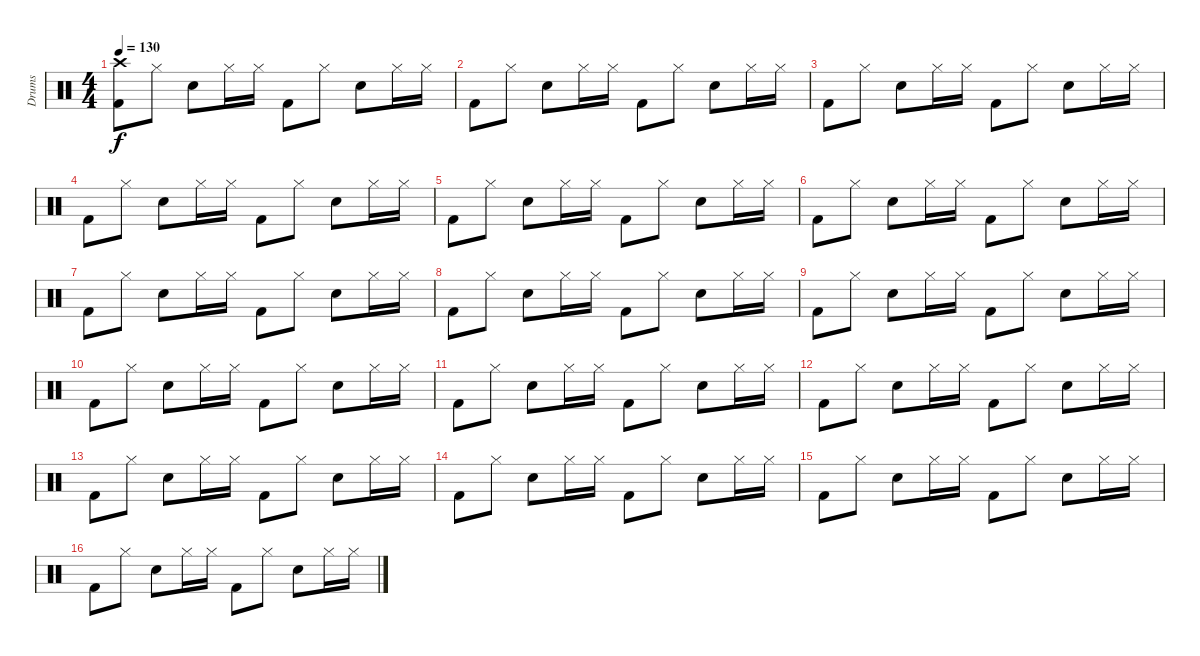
\track ("Drums" "Drums") {instrument percussion}
\staff {score}
\articulation defaults
\ts (4 4)
\tempo 130
\clef neutral
\ks c
("Crash high (hit)" "Kick (hit) 2").8{dy f} "Hi-Hat (closed)".8 "Snare (hit) 2".8 "Hi-Hat (closed)".16 "Hi-Hat (closed)".16 "Kick (hit) 2".8 "Hi-Hat (closed)".8 "Snare (hit) 2".8 "Hi-Hat (closed)".16 "Hi-Hat (closed)".16 |
"Kick (hit) 2".8 "Hi-Hat (closed)".8 "Snare (hit) 2".8 "Hi-Hat (closed)".16 "Hi-Hat (closed)".16 "Kick (hit) 2".8 "Hi-Hat (closed)".8 "Snare (hit) 2".8 "Hi-Hat (closed)".16 "Hi-Hat (closed)".16 |
"Kick (hit) 2".8 "Hi-Hat (closed)".8 "Snare (hit) 2".8 "Hi-Hat (closed)".16 "Hi-Hat (closed)".16 "Kick (hit) 2".8 "Hi-Hat (closed)".8 "Snare (hit) 2".8 "Hi-Hat (closed)".16 "Hi-Hat (closed)".16 |
"Kick (hit) 2".8 "Hi-Hat (closed)".8 "Snare (hit) 2".8 "Hi-Hat (closed)".16 "Hi-Hat (closed)".16 "Kick (hit) 2".8 "Hi-Hat (closed)".8 "Snare (hit) 2".8 "Hi-Hat (closed)".16 "Hi-Hat (closed)".16 |
"Kick (hit) 2".8 "Hi-Hat (closed)".8 "Snare (hit) 2".8 "Hi-Hat (closed)".16 "Hi-Hat (closed)".16 "Kick (hit) 2".8 "Hi-Hat (closed)".8 "Snare (hit) 2".8 "Hi-Hat (closed)".16 "Hi-Hat (closed)".16 |
"Kick (hit) 2".8 "Hi-Hat (closed)".8 "Snare (hit) 2".8 "Hi-Hat (closed)".16 "Hi-Hat (closed)".16 "Kick (hit) 2".8 "Hi-Hat (closed)".8 "Snare (hit) 2".8 "Hi-Hat (closed)".16 "Hi-Hat (closed)".16 |
"Kick (hit) 2".8 "Hi-Hat (closed)".8 "Snare (hit) 2".8 "Hi-Hat (closed)".16 "Hi-Hat (closed)".16 "Kick (hit) 2".8 "Hi-Hat (closed)".8 "Snare (hit) 2".8 "Hi-Hat (closed)".16 "Hi-Hat (closed)".16 |
"Kick (hit) 2".8 "Hi-Hat (closed)".8 "Snare (hit) 2".8 "Hi-Hat (closed)".16 "Hi-Hat (closed)".16 "Kick (hit) 2".8 "Hi-Hat (closed)".8 "Snare (hit) 2".8 "Hi-Hat (closed)".16 "Hi-Hat (closed)".16 |
"Kick (hit) 2".8 "Hi-Hat (closed)".8 "Snare (hit) 2".8 "Hi-Hat (closed)".16 "Hi-Hat (closed)".16 "Kick (hit) 2".8 "Hi-Hat (closed)".8 "Snare (hit) 2".8 "Hi-Hat (closed)".16 "Hi-Hat (closed)".16 |
"Kick (hit) 2".8 "Hi-Hat (closed)".8 "Snare (hit) 2".8 "Hi-Hat (closed)".16 "Hi-Hat (closed)".16 "Kick (hit) 2".8 "Hi-Hat (closed)".8 "Snare (hit) 2".8 "Hi-Hat (closed)".16 "Hi-Hat (closed)".16 |
"Kick (hit) 2".8 "Hi-Hat (closed)".8 "Snare (hit) 2".8 "Hi-Hat (closed)".16 "Hi-Hat (closed)".16 "Kick (hit) 2".8 "Hi-Hat (closed)".8 "Snare (hit) 2".8 "Hi-Hat (closed)".16 "Hi-Hat (closed)".16 |
"Kick (hit) 2".8 "Hi-Hat (closed)".8 "Snare (hit) 2".8 "Hi-Hat (closed)".16 "Hi-Hat (closed)".16 "Kick (hit) 2".8 "Hi-Hat (closed)".8 "Snare (hit) 2".8 "Hi-Hat (closed)".16 "Hi-Hat (closed)".16 |
"Kick (hit) 2".8 "Hi-Hat (closed)".8 "Snare (hit) 2".8 "Hi-Hat (closed)".16 "Hi-Hat (closed)".16 "Kick (hit) 2".8 "Hi-Hat (closed)".8 "Snare (hit) 2".8 "Hi-Hat (closed)".16 "Hi-Hat (closed)".16 |
"Kick (hit) 2".8 "Hi-Hat (closed)".8 "Snare (hit) 2".8 "Hi-Hat (closed)".16 "Hi-Hat (closed)".16 "Kick (hit) 2".8 "Hi-Hat (closed)".8 "Snare (hit) 2".8 "Hi-Hat (closed)".16 "Hi-Hat (closed)".16 |
"Kick (hit) 2".8 "Hi-Hat (closed)".8 "Snare (hit) 2".8 "Hi-Hat (closed)".16 "Hi-Hat (closed)".16 "Kick (hit) 2".8 "Hi-Hat (closed)".8 "Snare (hit) 2".8 "Hi-Hat (closed)".16 "Hi-Hat (closed)".16 |
"Kick (hit) 2".8 "Hi-Hat (closed)".8 "Snare (hit) 2".8 "Hi-Hat (closed)".16 "Hi-Hat (closed)".16 "Kick (hit) 2".8 "Hi-Hat (closed)".8 "Snare (hit) 2".8 "Hi-Hat (closed)".16 "Hi-Hat (closed)".16
